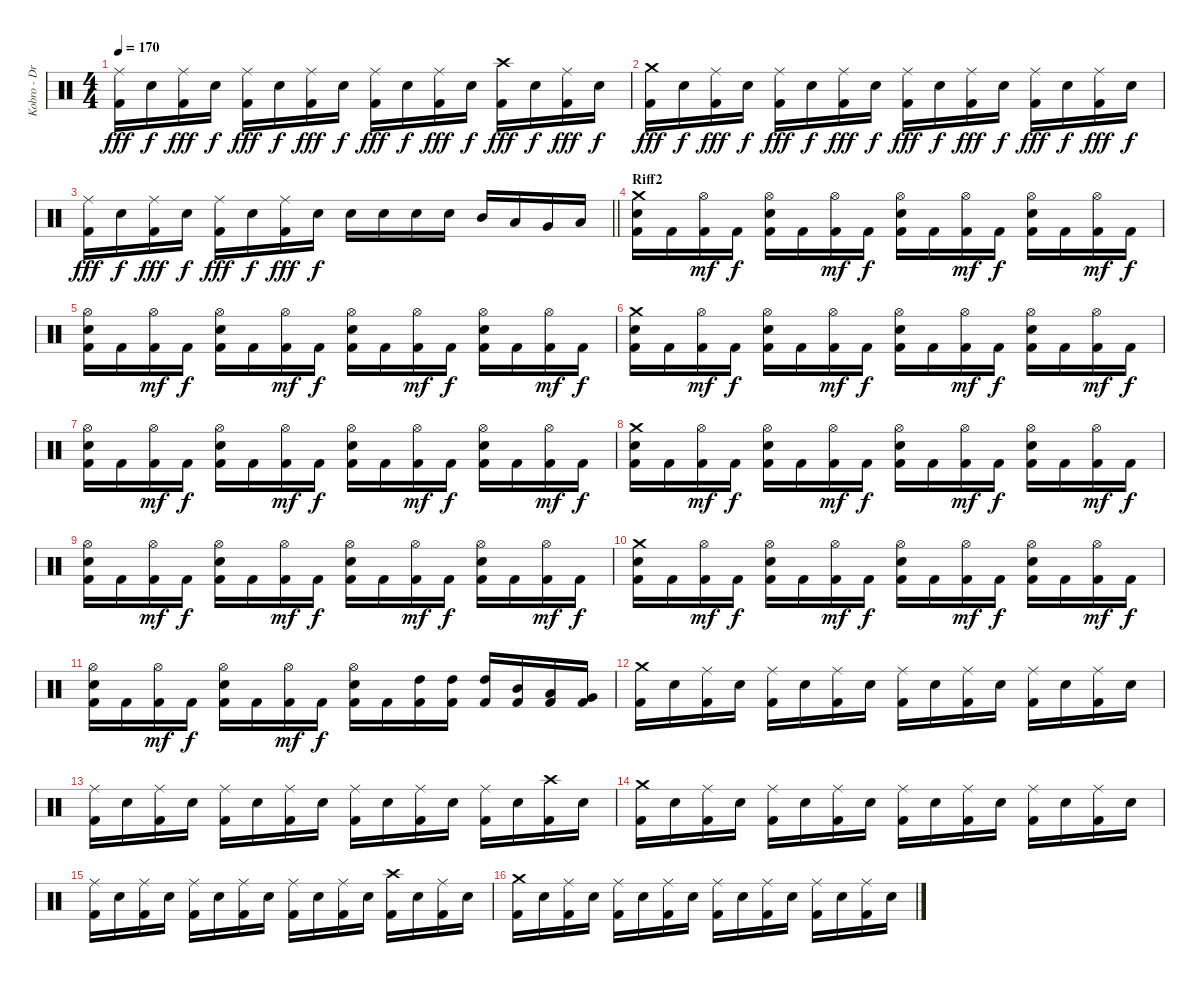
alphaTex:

\track ("Kobro - Drums + Percussion" "Kobro - Dr") {instrument percussion}
\staff {score}
\articulation defaults
\ts (4 4)
\tempo 170
\clef neutral
\ks c
("Ride (middle)" "Kick (hit) 2").16{dy fff} "Electric Snare (hit)".16{dy f} ("Ride (middle)" "Kick (hit) 2").16{dy fff} "Electric Snare (hit)".16{dy f} ("Ride (middle)" "Kick (hit) 2").16{dy fff} "Electric Snare (hit)".16{dy f} ("Ride (middle)" "Kick (hit) 2").16{dy fff} "Electric Snare (hit)".16{dy f} ("Ride (middle)" "Kick (hit) 2").16{dy fff} "Electric Snare (hit)".16{dy f} ("Ride (middle)" "Kick (hit) 2").16{dy fff} "Electric Snare (hit)".16{dy f} ("Crash high (hit)" "Kick (hit) 2").16{dy fff} "Electric Snare (hit)".16{dy f} ("Ride (middle)" "Kick (hit) 2").16{dy fff} "Electric Snare (hit)".16{dy f} |
("Crash medium (hit)" "Kick (hit) 2").16{dy fff} "Electric Snare (hit)".16{dy f} ("Ride (middle)" "Kick (hit) 2").16{dy fff} "Electric Snare (hit)".16{dy f} ("Ride (middle)" "Kick (hit) 2").16{dy fff} "Electric Snare (hit)".16{dy f} ("Ride (middle)" "Kick (hit) 2").16{dy fff} "Electric Snare (hit)".16{dy f} ("Ride (middle)" "Kick (hit) 2").16{dy fff} "Electric Snare (hit)".16{dy f} ("Ride (middle)" "Kick (hit) 2").16{dy fff} "Electric Snare (hit)".16{dy f} ("Ride (middle)" "Kick (hit) 2").16{dy fff} "Electric Snare (hit)".16{dy f} ("Ride (middle)" "Kick (hit) 2").16{dy fff} "Electric Snare (hit)".16{dy f} |
\barLineRight lightlight
("Ride (middle)" "Kick (hit) 2").16{dy fff} "Electric Snare (hit)".16{dy f} ("Ride (middle)" "Kick (hit) 2").16{dy fff} "Electric Snare (hit)".16{dy f} ("Ride (middle)" "Kick (hit) 2").16{dy fff} "Electric Snare (hit)".16{dy f} ("Ride (middle)" "Kick (hit) 2").16{dy fff} "Electric Snare (hit)".16{dy f} "Electric Snare (hit)".16 "Electric Snare (hit)".16 "Electric Snare (hit)".16 "Electric Snare (hit)".16 "Mid Tom (hit)".16 "Low Tom (hit)".16 "Very Low Tom (hit)".16 "Low Floor Tom (hit)".16 |
\section ("" "Riff2")
("Crash medium (hit)" "Electric Snare (hit)" "Kick (hit) 2").16 "Kick (hit) 2".16 ("Hi-Hat (open)" "Kick (hit) 2").16{dy mf} "Kick (hit) 2".16{dy f} ("Hi-Hat (open)" "Electric Snare (hit)" "Kick (hit) 2").16 "Kick (hit) 2".16 ("Hi-Hat (open)" "Kick (hit) 2").16{dy mf} "Kick (hit) 2".16{dy f} ("Hi-Hat (open)" "Electric Snare (hit)" "Kick (hit) 2").16 "Kick (hit) 2".16 ("Hi-Hat (open)" "Kick (hit) 2").16{dy mf} "Kick (hit) 2".16{dy f} ("Hi-Hat (open)" "Electric Snare (hit)" "Kick (hit) 2").16 "Kick (hit) 2".16 ("Hi-Hat (open)" "Kick (hit) 2").16{dy mf} "Kick (hit) 2".16{dy f} |
("Hi-Hat (open)" "Electric Snare (hit)" "Kick (hit) 2").16 "Kick (hit) 2".16 ("Hi-Hat (open)" "Kick (hit) 2").16{dy mf} "Kick (hit) 2".16{dy f} ("Hi-Hat (open)" "Electric Snare (hit)" "Kick (hit) 2").16 "Kick (hit) 2".16 ("Hi-Hat (open)" "Kick (hit) 2").16{dy mf} "Kick (hit) 2".16{dy f} ("Hi-Hat (open)" "Electric Snare (hit)" "Kick (hit) 2").16 "Kick (hit) 2".16 ("Hi-Hat (open)" "Kick (hit) 2").16{dy mf} "Kick (hit) 2".16{dy f} ("Hi-Hat (open)" "Electric Snare (hit)" "Kick (hit) 2").16 "Kick (hit) 2".16 ("Hi-Hat (open)" "Kick (hit) 2").16{dy mf} "Kick (hit) 2".16{dy f} |
("Crash medium (hit)" "Electric Snare (hit)" "Kick (hit) 2").16 "Kick (hit) 2".16 ("Hi-Hat (open)" "Kick (hit) 2").16{dy mf} "Kick (hit) 2".16{dy f} ("Hi-Hat (open)" "Electric Snare (hit)" "Kick (hit) 2").16 "Kick (hit) 2".16 ("Hi-Hat (open)" "Kick (hit) 2").16{dy mf} "Kick (hit) 2".16{dy f} ("Hi-Hat (open)" "Electric Snare (hit)" "Kick (hit) 2").16 "Kick (hit) 2".16 ("Hi-Hat (open)" "Kick (hit) 2").16{dy mf} "Kick (hit) 2".16{dy f} ("Hi-Hat (open)" "Electric Snare (hit)" "Kick (hit) 2").16 "Kick (hit) 2".16 ("Hi-Hat (open)" "Kick (hit) 2").16{dy mf} "Kick (hit) 2".16{dy f} |
("Hi-Hat (open)" "Electric Snare (hit)" "Kick (hit) 2").16 "Kick (hit) 2".16 ("Hi-Hat (open)" "Kick (hit) 2").16{dy mf} "Kick (hit) 2".16{dy f} ("Hi-Hat (open)" "Electric Snare (hit)" "Kick (hit) 2").16 "Kick (hit) 2".16 ("Hi-Hat (open)" "Kick (hit) 2").16{dy mf} "Kick (hit) 2".16{dy f} ("Hi-Hat (open)" "Electric Snare (hit)" "Kick (hit) 2").16 "Kick (hit) 2".16 ("Hi-Hat (open)" "Kick (hit) 2").16{dy mf} "Kick (hit) 2".16{dy f} ("Hi-Hat (open)" "Electric Snare (hit)" "Kick (hit) 2").16 "Kick (hit) 2".16 ("Hi-Hat (open)" "Kick (hit) 2").16{dy mf} "Kick (hit) 2".16{dy f} |
("Crash medium (hit)" "Electric Snare (hit)" "Kick (hit) 2").16 "Kick (hit) 2".16 ("Hi-Hat (open)" "Kick (hit) 2").16{dy mf} "Kick (hit) 2".16{dy f} ("Hi-Hat (open)" "Electric Snare (hit)" "Kick (hit) 2").16 "Kick (hit) 2".16 ("Hi-Hat (open)" "Kick (hit) 2").16{dy mf} "Kick (hit) 2".16{dy f} ("Hi-Hat (open)" "Electric Snare (hit)" "Kick (hit) 2").16 "Kick (hit) 2".16 ("Hi-Hat (open)" "Kick (hit) 2").16{dy mf} "Kick (hit) 2".16{dy f} ("Hi-Hat (open)" "Electric Snare (hit)" "Kick (hit) 2").16 "Kick (hit) 2".16 ("Hi-Hat (open)" "Kick (hit) 2").16{dy mf} "Kick (hit) 2".16{dy f} |
("Hi-Hat (open)" "Electric Snare (hit)" "Kick (hit) 2").16 "Kick (hit) 2".16 ("Hi-Hat (open)" "Kick (hit) 2").16{dy mf} "Kick (hit) 2".16{dy f} ("Hi-Hat (open)" "Electric Snare (hit)" "Kick (hit) 2").16 "Kick (hit) 2".16 ("Hi-Hat (open)" "Kick (hit) 2").16{dy mf} "Kick (hit) 2".16{dy f} ("Hi-Hat (open)" "Electric Snare (hit)" "Kick (hit) 2").16 "Kick (hit) 2".16 ("Hi-Hat (open)" "Kick (hit) 2").16{dy mf} "Kick (hit) 2".16{dy f} ("Hi-Hat (open)" "Electric Snare (hit)" "Kick (hit) 2").16 "Kick (hit) 2".16 ("Hi-Hat (open)" "Kick (hit) 2").16{dy mf} "Kick (hit) 2".16{dy f} |
("Crash medium (hit)" "Electric Snare (hit)" "Kick (hit) 2").16 "Kick (hit) 2".16 ("Hi-Hat (open)" "Kick (hit) 2").16{dy mf} "Kick (hit) 2".16{dy f} ("Hi-Hat (open)" "Electric Snare (hit)" "Kick (hit) 2").16 "Kick (hit) 2".16 ("Hi-Hat (open)" "Kick (hit) 2").16{dy mf} "Kick (hit) 2".16{dy f} ("Hi-Hat (open)" "Electric Snare (hit)" "Kick (hit) 2").16 "Kick (hit) 2".16 ("Hi-Hat (open)" "Kick (hit) 2").16{dy mf} "Kick (hit) 2".16{dy f} ("Hi-Hat (open)" "Electric Snare (hit)" "Kick (hit) 2").16 "Kick (hit) 2".16 ("Hi-Hat (open)" "Kick (hit) 2").16{dy mf} "Kick (hit) 2".16{dy f} |
("Hi-Hat (open)" "Electric Snare (hit)" "Kick (hit) 2").16 "Kick (hit) 2".16 ("Hi-Hat (open)" "Kick (hit) 2").16{dy mf} "Kick (hit) 2".16{dy f} ("Hi-Hat (open)" "Electric Snare (hit)" "Kick (hit) 2").16 "Kick (hit) 2".16 ("Hi-Hat (open)" "Kick (hit) 2").16{dy mf} "Kick (hit) 2".16{dy f} ("Hi-Hat (open)" "Electric Snare (hit)" "Kick (hit) 2").16 "Kick (hit) 2".16 ("High Tom (hit)" "Kick (hit) 2").16 ("High Tom (hit)" "Kick (hit) 2").16 ("High Tom (hit)" "Kick (hit) 2").16 ("Mid Tom (hit)" "Kick (hit) 2").16 ("Low Tom (hit)" "Kick (hit) 2").16 ("Very Low Tom (hit)" "Kick (hit) 2").16 |
("Crash medium (hit)" "Kick (hit) 2").16 "Electric Snare (hit)".16 ("Ride (middle)" "Kick (hit) 2").16 "Electric Snare (hit)".16 ("Ride (middle)" "Kick (hit) 2").16 "Electric Snare (hit)".16 ("Ride (middle)" "Kick (hit) 2").16 "Electric Snare (hit)".16 ("Ride (middle)" "Kick (hit) 2").16 "Electric Snare (hit)".16 ("Ride (middle)" "Kick (hit) 2").16 "Electric Snare (hit)".16 ("Ride (middle)" "Kick (hit) 2").16 "Electric Snare (hit)".16 ("Ride (middle)" "Kick (hit) 2").16 "Electric Snare (hit)".16 |
("Ride (middle)" "Kick (hit) 2").16 "Electric Snare (hit)".16 ("Ride (middle)" "Kick (hit) 2").16 "Electric Snare (hit)".16 ("Ride (middle)" "Kick (hit) 2").16 "Electric Snare (hit)".16 ("Ride (middle)" "Kick (hit) 2").16 "Electric Snare (hit)".16 ("Ride (middle)" "Kick (hit) 2").16 "Electric Snare (hit)".16 ("Ride (middle)" "Kick (hit) 2").16 "Electric Snare (hit)".16 ("Ride (middle)" "Kick (hit) 2").16 "Electric Snare (hit)".16 ("Crash high (hit)" "Kick (hit) 2").16 "Electric Snare (hit)".16 |
("Crash medium (hit)" "Kick (hit) 2").16 "Electric Snare (hit)".16 ("Ride (middle)" "Kick (hit) 2").16 "Electric Snare (hit)".16 ("Ride (middle)" "Kick (hit) 2").16 "Electric Snare (hit)".16 ("Ride (middle)" "Kick (hit) 2").16 "Electric Snare (hit)".16 ("Ride (middle)" "Kick (hit) 2").16 "Electric Snare (hit)".16 ("Ride (middle)" "Kick (hit) 2").16 "Electric Snare (hit)".16 ("Ride (middle)" "Kick (hit) 2").16 "Electric Snare (hit)".16 ("Ride (middle)" "Kick (hit) 2").16 "Electric Snare (hit)".16 |
("Ride (middle)" "Kick (hit) 2").16 "Electric Snare (hit)".16 ("Ride (middle)" "Kick (hit) 2").16 "Electric Snare (hit)".16 ("Ride (middle)" "Kick (hit) 2").16 "Electric Snare (hit)".16 ("Ride (middle)" "Kick (hit) 2").16 "Electric Snare (hit)".16 ("Ride (middle)" "Kick (hit) 2").16 "Electric Snare (hit)".16 ("Ride (middle)" "Kick (hit) 2").16 "Electric Snare (hit)".16 ("Crash high (hit)" "Kick (hit) 2").16 "Electric Snare (hit)".16 ("Ride (middle)" "Kick (hit) 2").16 "Electric Snare (hit)".16 |
("Crash medium (hit)" "Kick (hit) 2").16 "Electric Snare (hit)".16 ("Ride (middle)" "Kick (hit) 2").16 "Electric Snare (hit)".16 ("Ride (middle)" "Kick (hit) 2").16 "Electric Snare (hit)".16 ("Ride (middle)" "Kick (hit) 2").16 "Electric Snare (hit)".16 ("Ride (middle)" "Kick (hit) 2").16 "Electric Snare (hit)".16 ("Ride (middle)" "Kick (hit) 2").16 "Electric Snare (hit)".16 ("Ride (middle)" "Kick (hit) 2").16 "Electric Snare (hit)".16 ("Ride (middle)" "Kick (hit) 2").16 "Electric Snare (hit)".16
